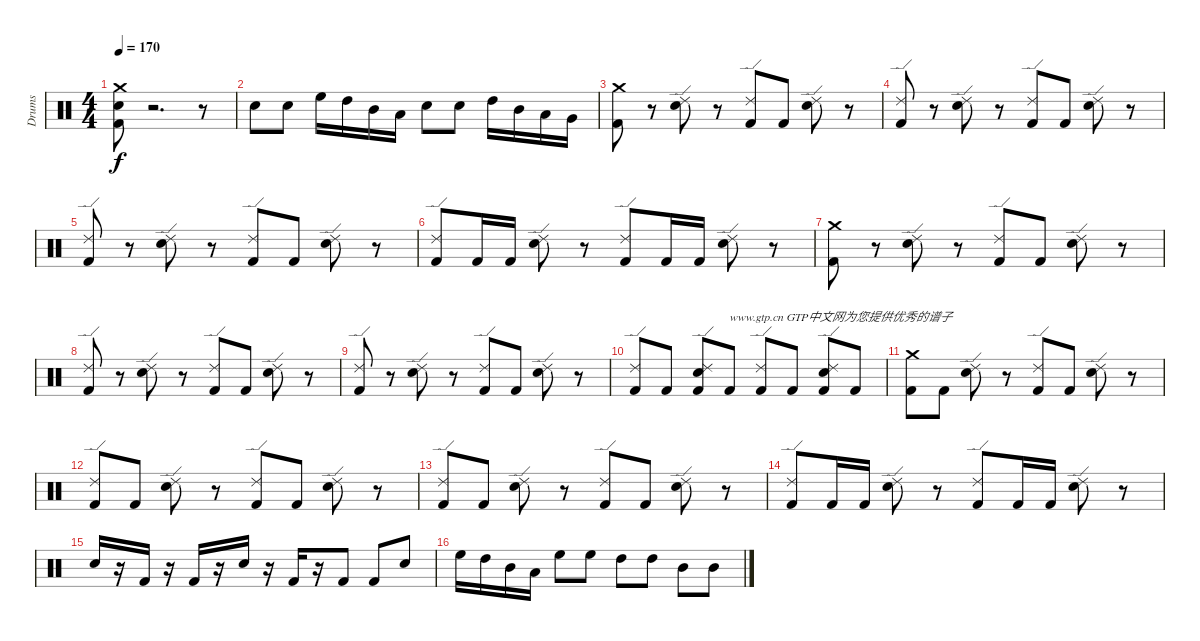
\track ("Drums" "Drums") {instrument percussion}
\staff {score}
\articulation defaults
\ts (4 4)
\tempo 170
\clef neutral
\ks c
("Crash medium (hit)" "Electric Snare (hit)" "Kick (hit) 2").8{dy f} r.2{d} r.8 |
"Electric Snare (hit)".8 "Electric Snare (hit)".8 "High Floor Tom (hit)".16 "High Tom (hit)".16 "Mid Tom (hit)".16 "Low Tom (hit)".16 "Electric Snare (hit)".8 "Electric Snare (hit)".8 "High Tom (hit)".16 "Mid Tom (hit)".16 "Low Tom (hit)".16 "Very Low Tom (hit)".16 |
("Crash medium (hit)" "Kick (hit) 2").8 r.8 ("Ride (edge) 2" "Electric Snare (hit)").8 r.8 ("Ride (edge) 2" "Kick (hit) 2").8 "Kick (hit) 2".8 ("Ride (edge) 2" "Electric Snare (hit)").8 r.8 |
("Ride (edge) 2" "Kick (hit) 2").8 r.8 ("Ride (edge) 2" "Electric Snare (hit)").8 r.8 ("Ride (edge) 2" "Kick (hit) 2").8 "Kick (hit) 2".8 ("Ride (edge) 2" "Electric Snare (hit)").8 r.8 |
("Ride (edge) 2" "Kick (hit) 2").8 r.8 ("Ride (edge) 2" "Electric Snare (hit)").8 r.8 ("Ride (edge) 2" "Kick (hit) 2").8 "Kick (hit) 2".8 ("Ride (edge) 2" "Electric Snare (hit)").8 r.8 |
("Ride (edge) 2" "Kick (hit) 2").8 "Kick (hit) 2".16 "Kick (hit) 2".16 ("Ride (edge) 2" "Electric Snare (hit)").8 r.8 ("Ride (edge) 2" "Kick (hit) 2").8 "Kick (hit) 2".16 "Kick (hit) 2".16 ("Ride (edge) 2" "Electric Snare (hit)").8 r.8 |
("Crash medium (hit)" "Kick (hit) 2").8 r.8 ("Ride (edge) 2" "Electric Snare (hit)").8 r.8 ("Ride (edge) 2" "Kick (hit) 2").8 "Kick (hit) 2".8 ("Ride (edge) 2" "Electric Snare (hit)").8 r.8 |
("Ride (edge) 2" "Kick (hit) 2").8 r.8 ("Ride (edge) 2" "Electric Snare (hit)").8 r.8 ("Ride (edge) 2" "Kick (hit) 2").8 "Kick (hit) 2".8 ("Ride (edge) 2" "Electric Snare (hit)").8 r.8 |
("Ride (edge) 2" "Kick (hit) 2").8 r.8 ("Ride (edge) 2" "Electric Snare (hit)").8 r.8 ("Ride (edge) 2" "Kick (hit) 2").8 "Kick (hit) 2".8 ("Ride (edge) 2" "Electric Snare (hit)").8 r.8 |
("Ride (edge) 2" "Kick (hit) 2").8 "Kick (hit) 2".8 ("Kick (hit) 2" "Ride (edge) 2" "Electric Snare (hit)").8 "Kick (hit) 2".8{txt "www.gtp.cn GTP中文网为您提供优秀的谱子"} ("Kick (hit) 2" "Ride (edge) 2").8 "Kick (hit) 2".8 ("Kick (hit) 2" "Ride (edge) 2" "Electric Snare (hit)").8 "Kick (hit) 2".8 |
("Crash medium (hit)" "Kick (hit) 2").8 "Kick (hit) 2".8 ("Ride (edge) 2" "Electric Snare (hit)").8 r.8 ("Ride (edge) 2" "Kick (hit) 2").8 "Kick (hit) 2".8 ("Ride (edge) 2" "Electric Snare (hit)").8 r.8 |
("Ride (edge) 2" "Kick (hit) 2").8 "Kick (hit) 2".8 ("Ride (edge) 2" "Electric Snare (hit)").8 r.8 ("Ride (edge) 2" "Kick (hit) 2").8 "Kick (hit) 2".8 ("Ride (edge) 2" "Electric Snare (hit)").8 r.8 |
("Ride (edge) 2" "Kick (hit) 2").8 "Kick (hit) 2".8 ("Ride (edge) 2" "Electric Snare (hit)").8 r.8 ("Ride (edge) 2" "Kick (hit) 2").8 "Kick (hit) 2".8 ("Ride (edge) 2" "Electric Snare (hit)").8 r.8 |
("Ride (edge) 2" "Kick (hit) 2").8 "Kick (hit) 2".16 "Kick (hit) 2".16 ("Ride (edge) 2" "Electric Snare (hit)").8 r.8 ("Ride (edge) 2" "Kick (hit) 2").8 "Kick (hit) 2".16 "Kick (hit) 2".16 ("Ride (edge) 2" "Electric Snare (hit)").8 r.8 |
"Electric Snare (hit)".16 r.16 "Kick (hit) 2".16 r.16 "Kick (hit) 2".16 r.16 "Electric Snare (hit)".16 r.16 "Kick (hit) 2".16 r.16 "Kick (hit) 2".8 "Kick (hit) 2".8 "Electric Snare (hit)".8 |
"High Floor Tom (hit)".16 "High Tom (hit)".16 "Mid Tom (hit)".16 "Low Tom (hit)".16 "High Floor Tom (hit)".8 "High Floor Tom (hit)".8 "High Tom (hit)".8 "High Tom (hit)".8 "Mid Tom (hit)".8 "Mid Tom (hit)".8
